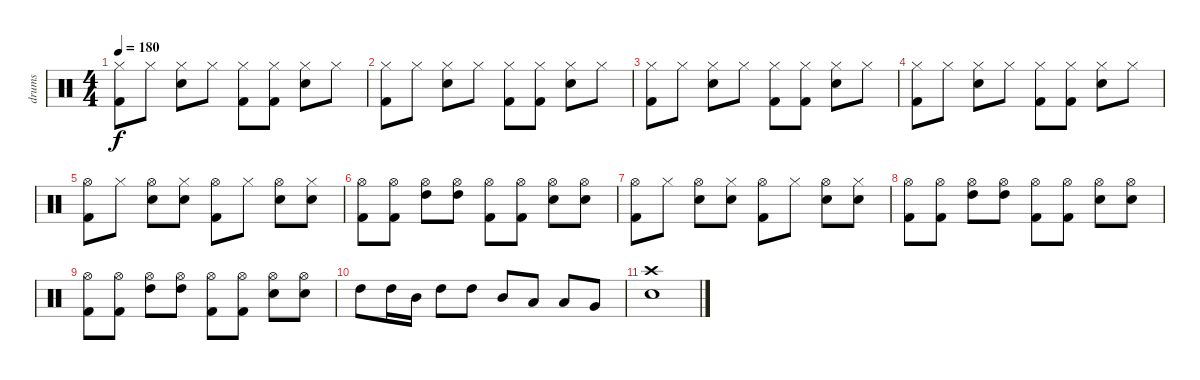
\track ("drums" "drums") {instrument percussion}
\staff {score}
\articulation defaults
\ts (4 4)
\tempo 180
\clef neutral
\ks c
("Hi-Hat (closed)" "Kick (hit) 2").8{dy f} "Hi-Hat (closed)".8 ("Hi-Hat (closed)" "Snare (hit) 2").8 "Hi-Hat (closed)".8 ("Hi-Hat (closed)" "Kick (hit) 2").8 ("Hi-Hat (closed)" "Kick (hit) 2").8 ("Hi-Hat (closed)" "Snare (hit) 2").8 "Hi-Hat (closed)".8 |
("Hi-Hat (closed)" "Kick (hit) 2").8 "Hi-Hat (closed)".8 ("Hi-Hat (closed)" "Snare (hit) 2").8 "Hi-Hat (closed)".8 ("Hi-Hat (closed)" "Kick (hit) 2").8 ("Hi-Hat (closed)" "Kick (hit) 2").8 ("Hi-Hat (closed)" "Snare (hit) 2").8 "Hi-Hat (closed)".8 |
("Hi-Hat (closed)" "Kick (hit) 2").8 "Hi-Hat (closed)".8 ("Hi-Hat (closed)" "Snare (hit) 2").8 "Hi-Hat (closed)".8 ("Hi-Hat (closed)" "Kick (hit) 2").8 ("Hi-Hat (closed)" "Kick (hit) 2").8 ("Hi-Hat (closed)" "Snare (hit) 2").8 "Hi-Hat (closed)".8 |
("Hi-Hat (closed)" "Kick (hit) 2").8 "Hi-Hat (closed)".8 ("Hi-Hat (closed)" "Snare (hit) 2").8 "Hi-Hat (closed)".8 ("Hi-Hat (closed)" "Kick (hit) 2").8 ("Hi-Hat (closed)" "Kick (hit) 2").8 ("Hi-Hat (closed)" "Snare (hit) 2").8 "Hi-Hat (closed)".8 |
("Hi-Hat (open)" "Kick (hit) 2").8 "Hi-Hat (closed)".8 ("Hi-Hat (open)" "Snare (hit) 2").8 ("Hi-Hat (closed)" "Snare (hit) 2").8 ("Hi-Hat (open)" "Kick (hit) 2").8 "Hi-Hat (closed)".8 ("Hi-Hat (open)" "Snare (hit) 2").8 ("Hi-Hat (closed)" "Snare (hit) 2").8 |
("Hi-Hat (open)" "Kick (hit) 2").8 ("Hi-Hat (open)" "Kick (hit) 2").8 ("Hi-Hat (open)" "High Tom (hit)").8 ("Hi-Hat (open)" "High Tom (hit)").8 ("Hi-Hat (open)" "Kick (hit) 2").8 ("Hi-Hat (open)" "Kick (hit) 2").8 ("Hi-Hat (open)" "Snare (hit) 2").8 ("Hi-Hat (open)" "Snare (hit) 2").8 |
("Hi-Hat (open)" "Kick (hit) 2").8 "Hi-Hat (closed)".8 ("Hi-Hat (open)" "Snare (hit) 2").8 ("Hi-Hat (closed)" "Snare (hit) 2").8 ("Hi-Hat (open)" "Kick (hit) 2").8 "Hi-Hat (closed)".8 ("Hi-Hat (open)" "Snare (hit) 2").8 ("Hi-Hat (closed)" "Snare (hit) 2").8 |
("Hi-Hat (open)" "Kick (hit) 2").8 ("Hi-Hat (open)" "Kick (hit) 2").8 ("Hi-Hat (open)" "High Tom (hit)").8 ("Hi-Hat (open)" "High Tom (hit)").8 ("Hi-Hat (open)" "Kick (hit) 2").8 ("Hi-Hat (open)" "Kick (hit) 2").8 ("Hi-Hat (open)" "Snare (hit) 2").8 ("Hi-Hat (open)" "Snare (hit) 2").8 |
("Hi-Hat (open)" "Kick (hit) 2").8 ("Hi-Hat (open)" "Kick (hit) 2").8 ("Hi-Hat (open)" "High Tom (hit)").8 ("Hi-Hat (open)" "High Tom (hit)").8 ("Hi-Hat (open)" "Kick (hit) 2").8 ("Hi-Hat (open)" "Kick (hit) 2").8 ("Hi-Hat (open)" "Snare (hit) 2").8 ("Hi-Hat (open)" "Snare (hit) 2").8 |
"High Tom (hit)".8 "High Tom (hit)".16 "Mid Tom (hit)".16 "High Tom (hit)".8 "High Tom (hit)".8 "Mid Tom (hit)".8 "Low Tom (hit)".8 "Low Tom (hit)".8 "Very Low Tom (hit)".8 |
("Crash high (hit)" "Snare (hit) 2").1
